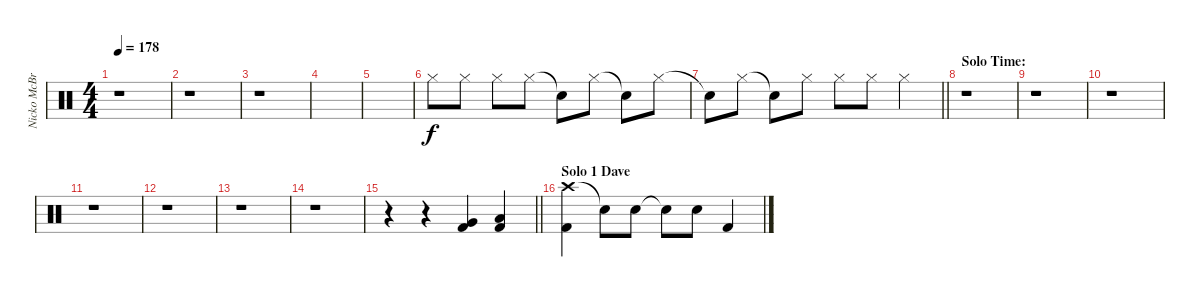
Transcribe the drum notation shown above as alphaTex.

\track ("Nicko McBrian" "Nicko McBr") {instrument percussion}
\staff {score}
\articulation defaults
\ts (4 4)
\tempo 178
\clef neutral
\ks c
r.1{dy f} |
r.1 |
r.1 |
|
|
"Hi-Hat (closed)".8 "Hi-Hat (closed)".8 "Hi-Hat (closed)".8 "Hi-Hat (closed)".8 "Snare (hit)"{t}.8 "Hi-Hat (closed)".8 "Snare (hit)"{t}.8 "Hi-Hat (closed)".8 |
\barLineRight lightlight "Snare (hit)"{t}.8 "Hi-Hat (closed)".8 "Snare (hit)"{t}.8 "Hi-Hat (closed)".8 "Hi-Hat (closed)".8 "Hi-Hat (closed)".8 "Hi-Hat (closed)".4
|
\section ("" "Solo Time:")
r.1 |
r.1 |
r.1 |
r.1 |
r.1 |
r.1 |
r.1 |
\barLineRight lightlight
r.4 r.4 ("Very Low Tom (hit)" "Kick (hit) 2").4 ("Low Floor Tom (hit)" "Kick (hit) 2").4 |
\section ("" "Solo 1 Dave")
("Crash high (hit)" "Kick (hit) 2").4 "Snare (hit)"{t}.8 "Electric Snare (hit)".8 "Snare (hit)"{t}.8 "Electric Snare (hit)".8 "Kick (hit) 2".4
